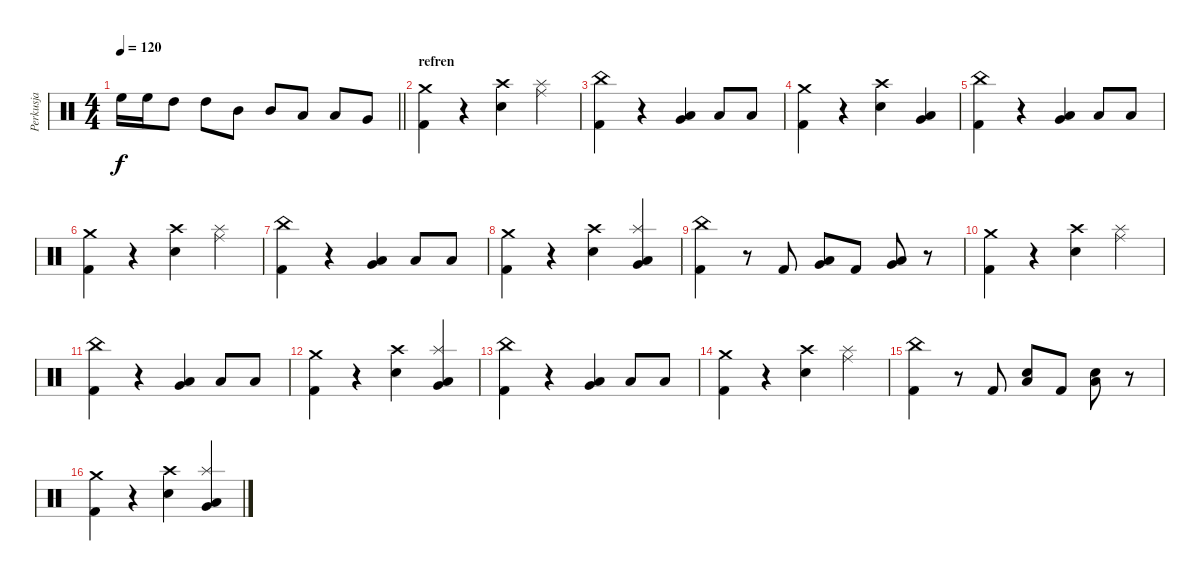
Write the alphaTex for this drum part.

\track ("Perkusja" "Perkusja") {instrument percussion}
\staff {score}
\articulation defaults
\ts (4 4)
\tempo 120
\clef neutral
\barLineRight lightlight
\ks c "High Floor Tom (hit)".16{dy f} "High Floor Tom (hit)".16 "High Tom (hit)".8 "High Tom (hit)".8 "Mid Tom (hit)".8 "Mid Tom (hit)".8 "Low Tom (hit)".8 "Low Tom (hit)".8 "Very Low Tom (hit)".8
|
\section ("" "refren")
("Crash medium (hit)" "Kick (hit) 2").4 r.4 ("Crash high (hit)" "Snare (hit) 2").4 ("Splash (hit)" "Ride (middle)").4 |
("China (hit)" "Kick (hit) 2").4 r.4 ("Very Low Tom (hit)" "Low Floor Tom (hit)").4 "Low Floor Tom (hit)".8 "Low Floor Tom (hit)".8 |
("Crash medium (hit)" "Kick (hit) 2").4 r.4 ("Crash high (hit)" "Snare (hit) 2").4 ("Very Low Tom (hit)" "Low Floor Tom (hit)").4 |
("China (hit)" "Kick (hit) 2").4 r.4 ("Very Low Tom (hit)" "Low Floor Tom (hit)").4 "Low Floor Tom (hit)".8 "Low Floor Tom (hit)".8 |
("Crash medium (hit)" "Kick (hit) 2").4 r.4 ("Crash high (hit)" "Snare (hit) 2").4 ("Splash (hit)" "Ride (middle)").4 |
("China (hit)" "Kick (hit) 2").4 r.4 ("Very Low Tom (hit)" "Low Floor Tom (hit)").4 "Low Floor Tom (hit)".8 "Low Floor Tom (hit)".8 |
("Crash medium (hit)" "Kick (hit) 2").4 r.4 ("Crash high (hit)" "Snare (hit) 2").4 ("Splash (hit)" "Very Low Tom (hit)" "Low Floor Tom (hit)").4 |
("China (hit)" "Kick (hit) 2").4 r.8 "Kick (hit) 2".8 ("Very Low Tom (hit)" "Low Floor Tom (hit)").8 "Kick (hit) 2".8 ("Very Low Tom (hit)" "Low Floor Tom (hit)").8 r.8 |
("Crash medium (hit)" "Kick (hit) 2").4 r.4 ("Crash high (hit)" "Snare (hit) 2").4 ("Splash (hit)" "Ride (middle)").4 |
("China (hit)" "Kick (hit) 2").4 r.4 ("Very Low Tom (hit)" "Low Floor Tom (hit)").4 "Low Floor Tom (hit)".8 "Low Floor Tom (hit)".8 |
("Crash medium (hit)" "Kick (hit) 2").4 r.4 ("Crash high (hit)" "Snare (hit) 2").4 ("Splash (hit)" "Very Low Tom (hit)" "Low Floor Tom (hit)").4 |
("China (hit)" "Kick (hit) 2").4 r.4 ("Very Low Tom (hit)" "Low Floor Tom (hit)").4 "Low Floor Tom (hit)".8 "Low Floor Tom (hit)".8 |
("Crash medium (hit)" "Kick (hit) 2").4 r.4 ("Crash high (hit)" "Snare (hit) 2").4 ("Splash (hit)" "Ride (middle)").4 |
("China (hit)" "Kick (hit) 2").4 r.8 "Kick (hit) 2".8 ("Snare (hit) 2" "Low Floor Tom (hit)").8 "Kick (hit) 2".8 ("Snare (hit) 2" "Low Floor Tom (hit)").8 r.8 |
("Crash medium (hit)" "Kick (hit) 2").4 r.4 ("Crash high (hit)" "Snare (hit) 2").4 ("Splash (hit)" "Very Low Tom (hit)" "Low Floor Tom (hit)").4
